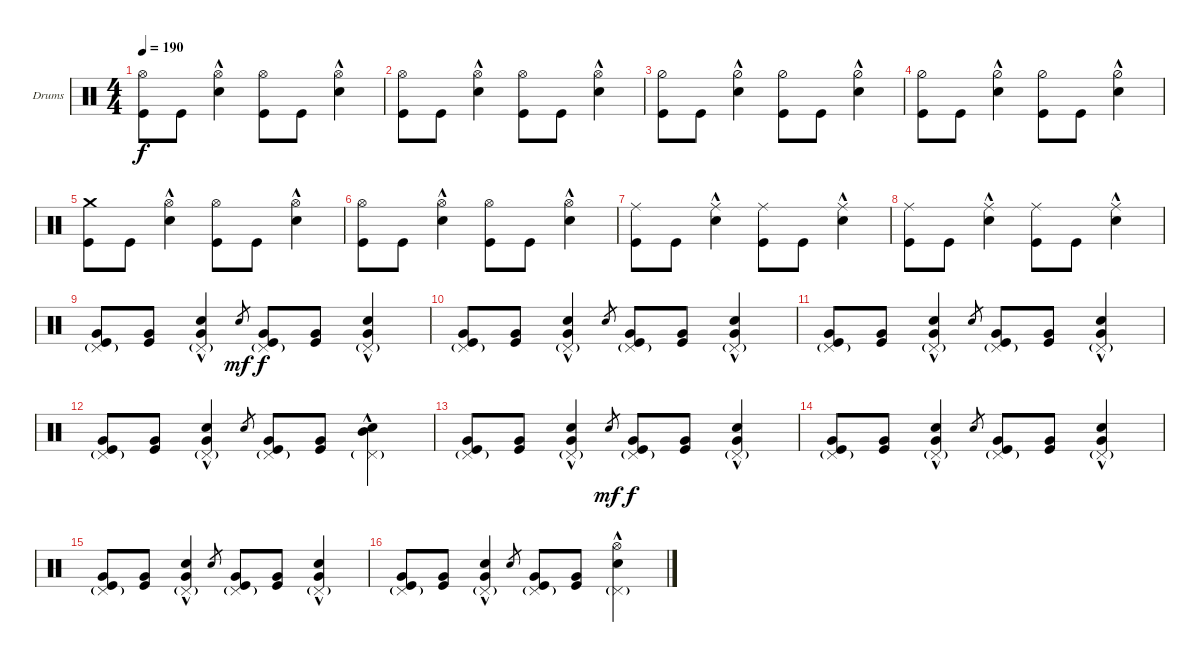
\bracketExtendMode groupsimilarinstruments
\firstSystemTrackNameOrientation horizontal
\otherSystemsTrackNameOrientation horizontal
\track ("Drumkit" "Drums") {instrument percussion}
\staff {score}
\articulation defaults
\ts (4 4)
\tempo 190
\clef neutral
\scale
0.333333
\ks c
("Kick (hit)" "Hi-Hat (open)").8{dy f} "Kick (hit)".8 ("Snare (hit) 2"{hac} "Hi-Hat (open)").4 ("Kick (hit)" "Hi-Hat (open)").8 "Kick (hit)".8 ("Snare (hit) 2"{hac} "Hi-Hat (open)").4 |
\scale
0.333333 ("Kick (hit)" "Hi-Hat (open)").8 "Kick (hit)".8 ("Snare (hit) 2"{hac} "Hi-Hat (open)").4 ("Kick (hit)" "Hi-Hat (open)").8 "Kick (hit)".8 ("Snare (hit) 2"{hac} "Hi-Hat (open)").4 |
\scale
0.333333 ("Kick (hit)" "Hi-Hat (half)").8 "Kick (hit)".8 ("Snare (hit) 2"{hac} "Hi-Hat (half)").4 ("Kick (hit)" "Hi-Hat (half)").8 "Kick (hit)".8 ("Snare (hit) 2"{hac} "Hi-Hat (half)").4 |
\scale
0.333333 ("Kick (hit)" "Hi-Hat (half)").8 "Kick (hit)".8 ("Snare (hit) 2"{hac} "Hi-Hat (half)").4 ("Kick (hit)" "Hi-Hat (half)").8 "Kick (hit)".8 ("Snare (hit) 2"{hac} "Hi-Hat (half)").4 |
\scale
0.333333 ("Kick (hit)" "Crash medium (hit)").8 "Kick (hit)".8 ("Snare (hit) 2"{hac} "Hi-Hat (open)").4 ("Kick (hit)" "Hi-Hat (open)").8 "Kick (hit)".8 ("Snare (hit) 2"{hac} "Hi-Hat (open)").4 |
\scale
0.333333 ("Kick (hit)" "Hi-Hat (open)").8 "Kick (hit)".8 ("Snare (hit) 2"{hac} "Hi-Hat (open)").4 ("Kick (hit)" "Hi-Hat (open)").8 "Kick (hit)".8 ("Snare (hit) 2"{hac} "Hi-Hat (open)").4 |
\scale
0.333333 ("Kick (hit)" "Ride (middle)").8 "Kick (hit)".8 ("Snare (hit) 2"{hac} "Ride (middle)").4 ("Kick (hit)" "Ride (middle)").8 "Kick (hit)".8 ("Snare (hit) 2"{hac} "Ride (middle)").4 |
\scale
0.333333 ("Kick (hit)" "Ride (middle)").8 "Kick (hit)".8 ("Snare (hit) 2"{hac} "Ride (middle)").4 ("Kick (hit)" "Ride (middle)").8 "Kick (hit)".8 ("Snare (hit) 2"{hac} "Ride (middle)").4 |
\scale
0.333333 ("Kick (hit)" "Very Low Tom (hit)" "Pedal Hi-Hat (hit)"{g}).8 ("Kick (hit)" "Very Low Tom (hit)").8 ("Snare (hit) 2"{hac} "Very Low Tom (hit)" "Pedal Hi-Hat (hit)"{g}).4 "Snare (hit) 2".8{gr dy mf} ("Kick (hit)" "Very Low Tom (hit)" "Pedal Hi-Hat (hit)"{g}).8{dy f} ("Kick (hit)" "Very Low Tom (hit)").8 ("Snare (hit) 2"{hac} "Very Low Tom (hit)" "Pedal Hi-Hat (hit)"{g}).4 |
\scale
0.333333 ("Kick (hit)" "Very Low Tom (hit)" "Pedal Hi-Hat (hit)"{g}).8 ("Kick (hit)" "Very Low Tom (hit)").8 ("Snare (hit) 2"{hac} "Very Low Tom (hit)" "Pedal Hi-Hat (hit)"{g}).4 "Snare (hit) 2".8{gr} ("Kick (hit)" "Very Low Tom (hit)" "Pedal Hi-Hat (hit)"{g}).8 ("Kick (hit)" "Very Low Tom (hit)").8 ("Snare (hit) 2"{hac} "Very Low Tom (hit)" "Pedal Hi-Hat (hit)"{g}).4 |
\scale
0.333333 ("Kick (hit)" "Very Low Tom (hit)" "Pedal Hi-Hat (hit)"{g}).8 ("Kick (hit)" "Very Low Tom (hit)").8 ("Snare (hit) 2"{hac} "Very Low Tom (hit)" "Pedal Hi-Hat (hit)"{g}).4 "Snare (hit) 2".8{gr} ("Kick (hit)" "Very Low Tom (hit)" "Pedal Hi-Hat (hit)"{g}).8 ("Kick (hit)" "Very Low Tom (hit)").8 ("Snare (hit) 2"{hac} "Very Low Tom (hit)" "Pedal Hi-Hat (hit)"{g}).4 |
\scale
0.333333 ("Kick (hit)" "Very Low Tom (hit)" "Pedal Hi-Hat (hit)"{g}).8 ("Kick (hit)" "Very Low Tom (hit)").8 ("Snare (hit) 2"{hac} "Very Low Tom (hit)" "Pedal Hi-Hat (hit)"{g}).4 "Snare (hit) 2".8{gr} ("Kick (hit)" "Very Low Tom (hit)" "Pedal Hi-Hat (hit)"{g}).8 ("Kick (hit)" "Very Low Tom (hit)").8 ("Snare (hit) 2"{hac} "Pedal Hi-Hat (hit)"{g} "Mid Tom (hit)").4 |
\scale
0.333333 ("Kick (hit)" "Very Low Tom (hit)" "Pedal Hi-Hat (hit)"{g}).8 ("Kick (hit)" "Very Low Tom (hit)").8 ("Snare (hit) 2"{hac} "Very Low Tom (hit)" "Pedal Hi-Hat (hit)"{g}).4 "Snare (hit) 2".8{gr dy mf} ("Kick (hit)" "Very Low Tom (hit)" "Pedal Hi-Hat (hit)"{g}).8{dy f} ("Kick (hit)" "Very Low Tom (hit)").8 ("Snare (hit) 2"{hac} "Very Low Tom (hit)" "Pedal Hi-Hat (hit)"{g}).4 |
\scale
0.333333 ("Kick (hit)" "Very Low Tom (hit)" "Pedal Hi-Hat (hit)"{g}).8 ("Kick (hit)" "Very Low Tom (hit)").8 ("Snare (hit) 2"{hac} "Very Low Tom (hit)" "Pedal Hi-Hat (hit)"{g}).4 "Snare (hit) 2".8{gr} ("Kick (hit)" "Very Low Tom (hit)" "Pedal Hi-Hat (hit)"{g}).8 ("Kick (hit)" "Very Low Tom (hit)").8 ("Snare (hit) 2"{hac} "Very Low Tom (hit)" "Pedal Hi-Hat (hit)"{g}).4 |
\scale
0.333333 ("Kick (hit)" "Very Low Tom (hit)" "Pedal Hi-Hat (hit)"{g}).8 ("Kick (hit)" "Very Low Tom (hit)").8 ("Snare (hit) 2"{hac} "Very Low Tom (hit)" "Pedal Hi-Hat (hit)"{g}).4 "Snare (hit) 2".8{gr} ("Kick (hit)" "Very Low Tom (hit)" "Pedal Hi-Hat (hit)"{g}).8 ("Kick (hit)" "Very Low Tom (hit)").8 ("Snare (hit) 2"{hac} "Very Low Tom (hit)" "Pedal Hi-Hat (hit)"{g}).4 |
\scale
0.333333 ("Kick (hit)" "Very Low Tom (hit)" "Pedal Hi-Hat (hit)"{g}).8 ("Kick (hit)" "Very Low Tom (hit)").8 ("Snare (hit) 2"{hac} "Very Low Tom (hit)" "Pedal Hi-Hat (hit)"{g}).4 "Snare (hit) 2".8{gr} ("Kick (hit)" "Very Low Tom (hit)" "Pedal Hi-Hat (hit)"{g}).8 ("Kick (hit)" "Very Low Tom (hit)").8 ("Snare (hit) 2"{hac} "Pedal Hi-Hat (hit)"{g} "Hi-Hat (open)").4
